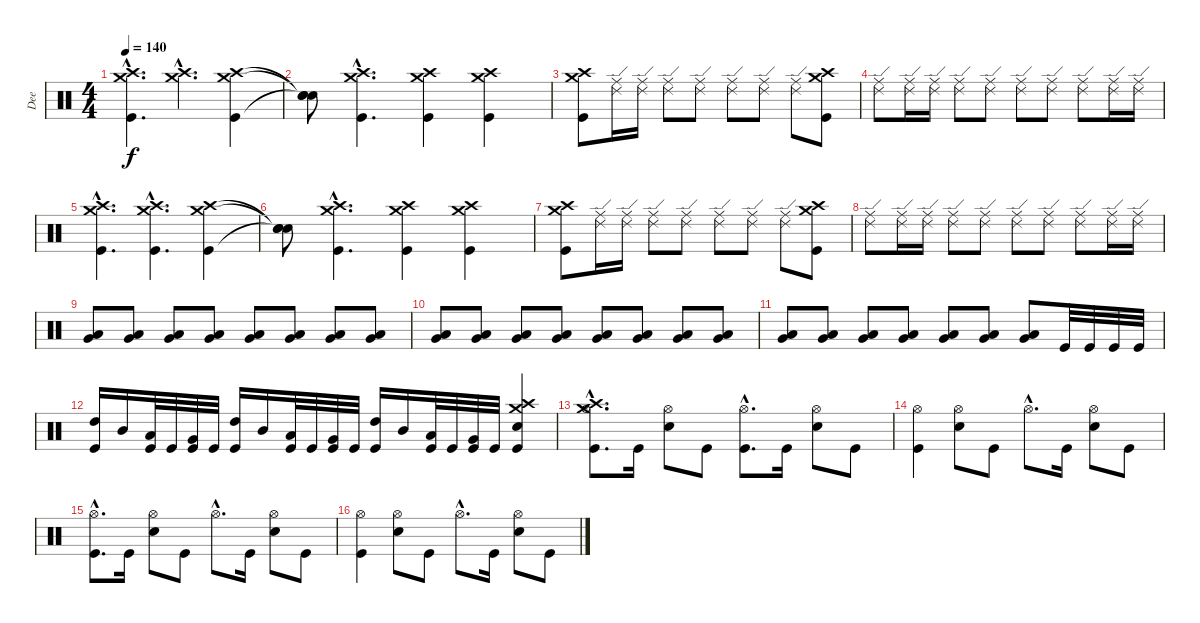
\track ("Dee" "Dee") {instrument percussion}
\staff {score}
\articulation defaults
\ts (4 4)
\tempo 140
\clef neutral
\ks c
("Kick (hit)"{hac} "Crash high (hit)"{hac} "Crash medium (hit)"{hac}).4{d dy f} ("Crash high (hit)"{hac} "Crash medium (hit)"{hac}).4{d} ("Kick (hit)" "Crash high (hit)" "Crash medium (hit)").4 |
("Snare (hit)"{t} "Snare (hit)"{t} "Snare (hit)"{t}).8 ("Crash medium (hit)"{hac} "Kick (hit)"{hac} "Crash high (hit)"{hac}).4{d} ("Crash medium (hit)" "Kick (hit)" "Crash high (hit)").4 ("Crash medium (hit)" "Kick (hit)" "Crash high (hit)").4 |
("Crash medium (hit)" "Kick (hit)" "Crash high (hit)").8 ("Ride (middle)" "Ride (edge) 2").16 ("Ride (middle)" "Ride (edge) 2").16 ("Ride (middle)" "Ride (edge) 2").8 ("Ride (middle)" "Ride (edge) 2").8 ("Ride (middle)" "Ride (edge) 2").8 ("Ride (middle)" "Ride (edge) 2").8 ("Ride (middle)" "Ride (edge) 2").8 ("Kick (hit)" "Crash medium (hit)" "Crash high (hit)").8 |
("Ride (middle)" "Ride (edge) 2").8 ("Ride (middle)" "Ride (edge) 2").16 ("Ride (middle)" "Ride (edge) 2").16 ("Ride (middle)" "Ride (edge) 2").8 ("Ride (middle)" "Ride (edge) 2").8 ("Ride (middle)" "Ride (edge) 2").8 ("Ride (middle)" "Ride (edge) 2").8 ("Ride (middle)" "Ride (edge) 2").8 ("Ride (middle)" "Ride (edge) 2").16 ("Ride (middle)" "Ride (edge) 2").16 |
("Crash medium (hit)"{hac} "Kick (hit)"{hac} "Crash high (hit)"{hac}).4{d} ("Crash medium (hit)"{hac} "Kick (hit)"{hac} "Crash high (hit)"{hac}).4{d} ("Crash medium (hit)" "Kick (hit)" "Crash high (hit)").4 |
("Snare (hit)"{t} "Snare (hit)"{t} "Snare (hit)"{t}).8 ("Crash medium (hit)"{hac} "Kick (hit)"{hac} "Crash high (hit)"{hac}).4{d} ("Crash medium (hit)" "Kick (hit)" "Crash high (hit)").4 ("Crash medium (hit)" "Kick (hit)" "Crash high (hit)").4 |
("Crash medium (hit)" "Kick (hit)" "Crash high (hit)").8 ("Ride (middle)" "Ride (edge) 2").16 ("Ride (middle)" "Ride (edge) 2").16 ("Ride (middle)" "Ride (edge) 2").8 ("Ride (middle)" "Ride (edge) 2").8 ("Ride (middle)" "Ride (edge) 2").8 ("Ride (middle)" "Ride (edge) 2").8 ("Ride (middle)" "Ride (edge) 2").8 ("Kick (hit)" "Crash medium (hit)" "Crash high (hit)").8 |
("Ride (middle)" "Ride (edge) 2").8 ("Ride (middle)" "Ride (edge) 2").16 ("Ride (middle)" "Ride (edge) 2").16 ("Ride (middle)" "Ride (edge) 2").8 ("Ride (middle)" "Ride (edge) 2").8 ("Ride (middle)" "Ride (edge) 2").8 ("Ride (middle)" "Ride (edge) 2").8 ("Ride (middle)" "Ride (edge) 2").8 ("Ride (middle)" "Ride (edge) 2").16 ("Ride (middle)" "Ride (edge) 2").16 |
("Very Low Tom (hit)" "Low Floor Tom (hit)").8 ("Low Floor Tom (hit)" "Very Low Tom (hit)").8 ("Low Floor Tom (hit)" "Very Low Tom (hit)").8 ("Low Floor Tom (hit)" "Very Low Tom (hit)").8 ("Low Floor Tom (hit)" "Very Low Tom (hit)").8 ("Low Floor Tom (hit)" "Very Low Tom (hit)").8 ("Low Floor Tom (hit)" "Very Low Tom (hit)").8 ("Low Floor Tom (hit)" "Very Low Tom (hit)").8 |
("Very Low Tom (hit)" "Low Floor Tom (hit)").8 ("Low Floor Tom (hit)" "Very Low Tom (hit)").8 ("Low Floor Tom (hit)" "Very Low Tom (hit)").8 ("Low Floor Tom (hit)" "Very Low Tom (hit)").8 ("Low Floor Tom (hit)" "Very Low Tom (hit)").8 ("Low Floor Tom (hit)" "Very Low Tom (hit)").8 ("Low Floor Tom (hit)" "Very Low Tom (hit)").8 ("Low Floor Tom (hit)" "Very Low Tom (hit)").8 |
("Very Low Tom (hit)" "Low Floor Tom (hit)").8 ("Low Floor Tom (hit)" "Very Low Tom (hit)").8 ("Low Floor Tom (hit)" "Very Low Tom (hit)").8 ("Low Floor Tom (hit)" "Very Low Tom (hit)").8 ("Low Floor Tom (hit)" "Very Low Tom (hit)").8 ("Low Floor Tom (hit)" "Very Low Tom (hit)").8 ("Low Floor Tom (hit)" "Very Low Tom (hit)").8 "Kick (hit)".32 "Kick (hit)".32 "Kick (hit)".32 "Kick (hit)".32 |
("High Tom (hit)" "Kick (hit)").16 "Mid Tom (hit)".16 ("Low Tom (hit)" "Kick (hit)").32 "Kick (hit)".32 ("Very Low Tom (hit)" "Kick (hit)").32 "Kick (hit)".32 ("High Tom (hit)" "Kick (hit)").16 "Mid Tom (hit)".16 ("Low Tom (hit)" "Kick (hit)").32 "Kick (hit)".32 ("Very Low Tom (hit)" "Kick (hit)").32 "Kick (hit)".32 ("High Tom (hit)" "Kick (hit)").16 "Mid Tom (hit)".16 ("Low Tom (hit)" "Kick (hit)").32 "Kick (hit)".32 ("Very Low Tom (hit)" "Kick (hit)").32 "Kick (hit)".32 ("Crash high (hit)" "Crash medium (hit)" "Kick (hit)" "Electric Snare (hit)").4 |
("Kick (hit)"{hac} "Crash medium (hit)"{hac} "Crash high (hit)"{hac} "Hi-Hat (open)"{hac}).8{d} "Kick (hit)".16 ("Electric Snare (hit)" "Hi-Hat (open)").8 "Kick (hit)".8 ("Kick (hit)"{hac} "Hi-Hat (open)"{hac}).8{d} "Kick (hit)".16 ("Electric Snare (hit)" "Hi-Hat (open)").8 "Kick (hit)".8 |
("Kick (hit)" "Hi-Hat (open)").4 ("Electric Snare (hit)" "Hi-Hat (open)").8 "Kick (hit)".8 "Hi-Hat (open)"{hac}.8{d} "Kick (hit)".16 ("Electric Snare (hit)" "Hi-Hat (open)").8 "Kick (hit)".8 |
("Kick (hit)"{hac} "Hi-Hat (open)"{hac}).8{d} "Kick (hit)".16 ("Electric Snare (hit)" "Hi-Hat (open)").8 "Kick (hit)".8 "Hi-Hat (open)"{hac}.8{d} "Kick (hit)".16 ("Electric Snare (hit)" "Hi-Hat (open)").8 "Kick (hit)".8 |
("Kick (hit)" "Hi-Hat (open)").4 ("Electric Snare (hit)" "Hi-Hat (open)").8 "Kick (hit)".8 "Hi-Hat (open)"{hac}.8{d} "Kick (hit)".16 ("Electric Snare (hit)" "Hi-Hat (open)").8 "Kick (hit)".8
